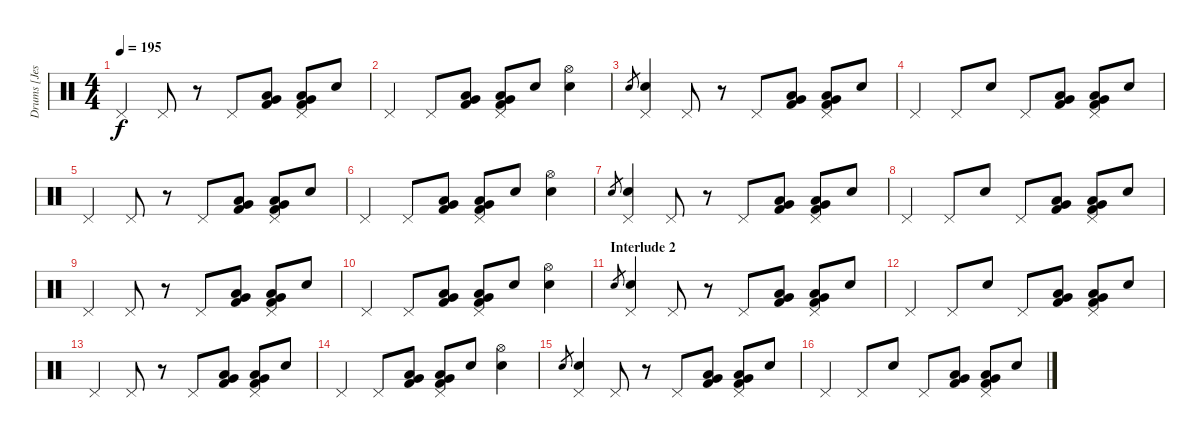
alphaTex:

\track ("Drums [Jesse Ingelevics]" "Drums [Jes") {instrument percussion}
\staff {score}
\articulation defaults
\ts (4 4)
\tempo 195
\clef neutral
\ks c "Pedal Hi-Hat (hit)".4{dy f} "Pedal Hi-Hat (hit)".8
r.8 "Pedal Hi-Hat (hit)".8 ("Very Low Tom (hit)" "Low Floor Tom (hit)" "Kick (hit) 2").8 ("Pedal Hi-Hat (hit)" "Very Low Tom (hit)" "Low Floor Tom (hit)" "Kick (hit) 2").8 "Electric Snare (hit)".8 |
"Pedal Hi-Hat (hit)".4 "Pedal Hi-Hat (hit)".8 ("Very Low Tom (hit)" "Low Floor Tom (hit)" "Kick (hit) 2").8 ("Pedal Hi-Hat (hit)" "Very Low Tom (hit)" "Low Floor Tom (hit)" "Kick (hit) 2").8 "Electric Snare (hit)".8 ("Hi-Hat (open)" "Electric Snare (hit)").4 |
"Electric Snare (hit)".8{gr} ("Pedal Hi-Hat (hit)" "Electric Snare (hit)").4 "Pedal Hi-Hat (hit)".8 r.8 "Pedal Hi-Hat (hit)".8 ("Very Low Tom (hit)" "Low Floor Tom (hit)" "Kick (hit) 2").8 ("Pedal Hi-Hat (hit)" "Very Low Tom (hit)" "Low Floor Tom (hit)" "Kick (hit) 2").8 "Electric Snare (hit)".8 |
"Pedal Hi-Hat (hit)".4 "Pedal Hi-Hat (hit)".8 "Electric Snare (hit)".8 "Pedal Hi-Hat (hit)".8 ("Very Low Tom (hit)" "Low Floor Tom (hit)" "Kick (hit) 2").8 ("Pedal Hi-Hat (hit)" "Very Low Tom (hit)" "Low Floor Tom (hit)" "Kick (hit) 2").8 "Electric Snare (hit)".8 |
"Pedal Hi-Hat (hit)".4 "Pedal Hi-Hat (hit)".8 r.8 "Pedal Hi-Hat (hit)".8 ("Very Low Tom (hit)" "Low Floor Tom (hit)" "Kick (hit) 2").8 ("Pedal Hi-Hat (hit)" "Very Low Tom (hit)" "Low Floor Tom (hit)" "Kick (hit) 2").8 "Electric Snare (hit)".8 |
"Pedal Hi-Hat (hit)".4 "Pedal Hi-Hat (hit)".8 ("Very Low Tom (hit)" "Low Floor Tom (hit)" "Kick (hit) 2").8 ("Pedal Hi-Hat (hit)" "Very Low Tom (hit)" "Low Floor Tom (hit)" "Kick (hit) 2").8 "Electric Snare (hit)".8 ("Hi-Hat (open)" "Electric Snare (hit)").4 |
"Electric Snare (hit)".8{gr} ("Pedal Hi-Hat (hit)" "Electric Snare (hit)").4 "Pedal Hi-Hat (hit)".8 r.8 "Pedal Hi-Hat (hit)".8 ("Very Low Tom (hit)" "Low Floor Tom (hit)" "Kick (hit) 2").8 ("Pedal Hi-Hat (hit)" "Very Low Tom (hit)" "Low Floor Tom (hit)" "Kick (hit) 2").8 "Electric Snare (hit)".8 |
"Pedal Hi-Hat (hit)".4 "Pedal Hi-Hat (hit)".8 "Electric Snare (hit)".8 "Pedal Hi-Hat (hit)".8 ("Very Low Tom (hit)" "Low Floor Tom (hit)" "Kick (hit) 2").8 ("Pedal Hi-Hat (hit)" "Very Low Tom (hit)" "Low Floor Tom (hit)" "Kick (hit) 2").8 "Electric Snare (hit)".8 |
"Pedal Hi-Hat (hit)".4 "Pedal Hi-Hat (hit)".8 r.8 "Pedal Hi-Hat (hit)".8 ("Very Low Tom (hit)" "Low Floor Tom (hit)" "Kick (hit) 2").8 ("Pedal Hi-Hat (hit)" "Very Low Tom (hit)" "Low Floor Tom (hit)" "Kick (hit) 2").8 "Electric Snare (hit)".8 |
"Pedal Hi-Hat (hit)".4 "Pedal Hi-Hat (hit)".8 ("Very Low Tom (hit)" "Low Floor Tom (hit)" "Kick (hit) 2").8 ("Pedal Hi-Hat (hit)" "Very Low Tom (hit)" "Low Floor Tom (hit)" "Kick (hit) 2").8 "Electric Snare (hit)".8 ("Hi-Hat (open)" "Electric Snare (hit)").4 |
\section ("" "Interlude 2")
"Electric Snare (hit)".8{gr} ("Pedal Hi-Hat (hit)" "Electric Snare (hit)").4 "Pedal Hi-Hat (hit)".8 r.8 "Pedal Hi-Hat (hit)".8 ("Very Low Tom (hit)" "Low Floor Tom (hit)" "Kick (hit) 2").8 ("Pedal Hi-Hat (hit)" "Very Low Tom (hit)" "Low Floor Tom (hit)" "Kick (hit) 2").8 "Electric Snare (hit)".8 |
"Pedal Hi-Hat (hit)".4 "Pedal Hi-Hat (hit)".8 "Electric Snare (hit)".8 "Pedal Hi-Hat (hit)".8 ("Very Low Tom (hit)" "Low Floor Tom (hit)" "Kick (hit) 2").8 ("Pedal Hi-Hat (hit)" "Very Low Tom (hit)" "Low Floor Tom (hit)" "Kick (hit) 2").8 "Electric Snare (hit)".8 |
"Pedal Hi-Hat (hit)".4 "Pedal Hi-Hat (hit)".8 r.8 "Pedal Hi-Hat (hit)".8 ("Very Low Tom (hit)" "Low Floor Tom (hit)" "Kick (hit) 2").8 ("Pedal Hi-Hat (hit)" "Very Low Tom (hit)" "Low Floor Tom (hit)" "Kick (hit) 2").8 "Electric Snare (hit)".8 |
"Pedal Hi-Hat (hit)".4 "Pedal Hi-Hat (hit)".8 ("Very Low Tom (hit)" "Low Floor Tom (hit)" "Kick (hit) 2").8 ("Pedal Hi-Hat (hit)" "Very Low Tom (hit)" "Low Floor Tom (hit)" "Kick (hit) 2").8 "Electric Snare (hit)".8 ("Hi-Hat (open)" "Electric Snare (hit)").4 |
"Electric Snare (hit)".8{gr} ("Pedal Hi-Hat (hit)" "Electric Snare (hit)").4 "Pedal Hi-Hat (hit)".8 r.8 "Pedal Hi-Hat (hit)".8 ("Very Low Tom (hit)" "Low Floor Tom (hit)" "Kick (hit) 2").8 ("Pedal Hi-Hat (hit)" "Very Low Tom (hit)" "Low Floor Tom (hit)" "Kick (hit) 2").8 "Electric Snare (hit)".8 |
"Pedal Hi-Hat (hit)".4 "Pedal Hi-Hat (hit)".8 "Electric Snare (hit)".8 "Pedal Hi-Hat (hit)".8 ("Very Low Tom (hit)" "Low Floor Tom (hit)" "Kick (hit) 2").8 ("Pedal Hi-Hat (hit)" "Very Low Tom (hit)" "Low Floor Tom (hit)" "Kick (hit) 2").8 "Electric Snare (hit)".8
